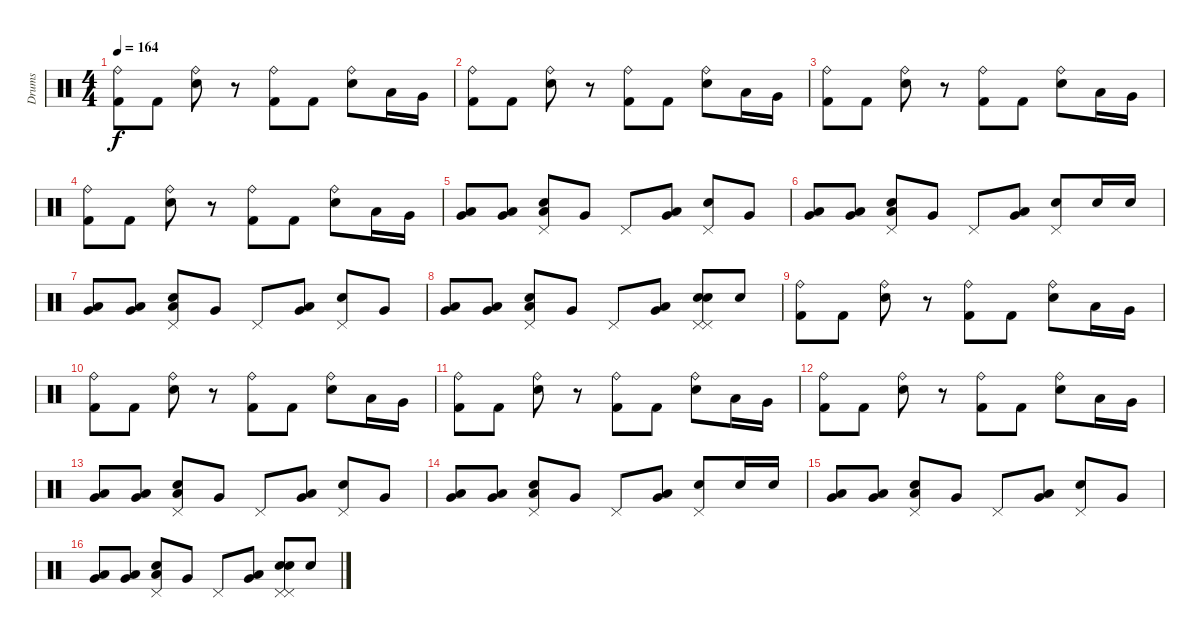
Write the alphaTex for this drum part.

\track ("Drums" "Drums") {instrument percussion}
\staff {score}
\articulation defaults
\ts (4 4)
\tempo 164
\clef neutral
\ks c
("Ride (bell)" "Kick (hit) 2").8{dy f} "Kick (hit) 2".8 ("Ride (bell)" "Electric Snare (hit)").8 r.8 ("Ride (bell)" "Kick (hit) 2").8 "Kick (hit) 2".8 ("Ride (bell)" "Electric Snare (hit)").8 "Low Tom (hit)".16 "Very Low Tom (hit)".16 |
("Ride (bell)" "Kick (hit) 2").8 "Kick (hit) 2".8 ("Ride (bell)" "Electric Snare (hit)").8 r.8 ("Ride (bell)" "Kick (hit) 2").8 "Kick (hit) 2".8 ("Ride (bell)" "Electric Snare (hit)").8 "Low Tom (hit)".16 "Very Low Tom (hit)".16 |
("Ride (bell)" "Kick (hit) 2").8 "Kick (hit) 2".8 ("Ride (bell)" "Electric Snare (hit)").8 r.8 ("Ride (bell)" "Kick (hit) 2").8 "Kick (hit) 2".8 ("Ride (bell)" "Electric Snare (hit)").8 "Low Tom (hit)".16 "Very Low Tom (hit)".16 |
("Ride (bell)" "Kick (hit) 2").8 "Kick (hit) 2".8 ("Ride (bell)" "Electric Snare (hit)").8 r.8 ("Ride (bell)" "Kick (hit) 2").8 "Kick (hit) 2".8 ("Ride (bell)" "Electric Snare (hit)").8 "Low Tom (hit)".16 "Very Low Tom (hit)".16 |
("Very Low Tom (hit)" "Low Floor Tom (hit)").8 ("Very Low Tom (hit)" "Low Floor Tom (hit)").8 ("Electric Snare (hit)" "Pedal Hi-Hat (hit)" "Low Floor Tom (hit)").8 "Very Low Tom (hit)".8 "Pedal Hi-Hat (hit)".8 ("Very Low Tom (hit)" "Low Floor Tom (hit)").8 ("Electric Snare (hit)" "Pedal Hi-Hat (hit)").8 "Very Low Tom (hit)".8 |
("Very Low Tom (hit)" "Low Floor Tom (hit)").8 ("Very Low Tom (hit)" "Low Floor Tom (hit)").8 ("Electric Snare (hit)" "Pedal Hi-Hat (hit)" "Low Floor Tom (hit)").8 "Very Low Tom (hit)".8 "Pedal Hi-Hat (hit)".8 ("Very Low Tom (hit)" "Low Floor Tom (hit)").8 ("Electric Snare (hit)" "Pedal Hi-Hat (hit)").8 "Electric Snare (hit)".16 "Electric Snare (hit)".16 |
("Very Low Tom (hit)" "Low Floor Tom (hit)").8 ("Very Low Tom (hit)" "Low Floor Tom (hit)").8 ("Electric Snare (hit)" "Pedal Hi-Hat (hit)" "Low Floor Tom (hit)").8 "Very Low Tom (hit)".8 "Pedal Hi-Hat (hit)".8 ("Very Low Tom (hit)" "Low Floor Tom (hit)").8 ("Electric Snare (hit)" "Pedal Hi-Hat (hit)").8 "Very Low Tom (hit)".8 |
("Very Low Tom (hit)" "Low Floor Tom (hit)").8 ("Very Low Tom (hit)" "Low Floor Tom (hit)").8 ("Electric Snare (hit)" "Pedal Hi-Hat (hit)" "Low Floor Tom (hit)").8 "Very Low Tom (hit)".8 "Pedal Hi-Hat (hit)".8 ("Very Low Tom (hit)" "Low Floor Tom (hit)").8 ("Electric Snare (hit)" "Pedal Hi-Hat (hit)" "Electric Snare (hit)" "Pedal Hi-Hat (hit)").8 "Electric Snare (hit)".8 |
("Ride (bell)" "Kick (hit) 2").8 "Kick (hit) 2".8 ("Ride (bell)" "Electric Snare (hit)").8 r.8 ("Ride (bell)" "Kick (hit) 2").8 "Kick (hit) 2".8 ("Ride (bell)" "Electric Snare (hit)").8 "Low Tom (hit)".16 "Very Low Tom (hit)".16 |
("Ride (bell)" "Kick (hit) 2").8 "Kick (hit) 2".8 ("Ride (bell)" "Electric Snare (hit)").8 r.8 ("Ride (bell)" "Kick (hit) 2").8 "Kick (hit) 2".8 ("Ride (bell)" "Electric Snare (hit)").8 "Low Tom (hit)".16 "Very Low Tom (hit)".16 |
("Ride (bell)" "Kick (hit) 2").8 "Kick (hit) 2".8 ("Ride (bell)" "Electric Snare (hit)").8 r.8 ("Ride (bell)" "Kick (hit) 2").8 "Kick (hit) 2".8 ("Ride (bell)" "Electric Snare (hit)").8 "Low Tom (hit)".16 "Very Low Tom (hit)".16 |
("Ride (bell)" "Kick (hit) 2").8 "Kick (hit) 2".8 ("Ride (bell)" "Electric Snare (hit)").8 r.8 ("Ride (bell)" "Kick (hit) 2").8 "Kick (hit) 2".8 ("Ride (bell)" "Electric Snare (hit)").8 "Low Tom (hit)".16 "Very Low Tom (hit)".16 |
("Very Low Tom (hit)" "Low Floor Tom (hit)").8 ("Very Low Tom (hit)" "Low Floor Tom (hit)").8 ("Electric Snare (hit)" "Pedal Hi-Hat (hit)" "Low Floor Tom (hit)").8 "Very Low Tom (hit)".8 "Pedal Hi-Hat (hit)".8 ("Very Low Tom (hit)" "Low Floor Tom (hit)").8 ("Electric Snare (hit)" "Pedal Hi-Hat (hit)").8 "Very Low Tom (hit)".8 |
("Very Low Tom (hit)" "Low Floor Tom (hit)").8 ("Very Low Tom (hit)" "Low Floor Tom (hit)").8 ("Electric Snare (hit)" "Pedal Hi-Hat (hit)" "Low Floor Tom (hit)").8 "Very Low Tom (hit)".8 "Pedal Hi-Hat (hit)".8 ("Very Low Tom (hit)" "Low Floor Tom (hit)").8 ("Electric Snare (hit)" "Pedal Hi-Hat (hit)").8 "Electric Snare (hit)".16 "Electric Snare (hit)".16 |
("Very Low Tom (hit)" "Low Floor Tom (hit)").8 ("Very Low Tom (hit)" "Low Floor Tom (hit)").8 ("Electric Snare (hit)" "Pedal Hi-Hat (hit)" "Low Floor Tom (hit)").8 "Very Low Tom (hit)".8 "Pedal Hi-Hat (hit)".8 ("Very Low Tom (hit)" "Low Floor Tom (hit)").8 ("Electric Snare (hit)" "Pedal Hi-Hat (hit)").8 "Very Low Tom (hit)".8 |
("Very Low Tom (hit)" "Low Floor Tom (hit)").8 ("Very Low Tom (hit)" "Low Floor Tom (hit)").8 ("Electric Snare (hit)" "Pedal Hi-Hat (hit)" "Low Floor Tom (hit)").8 "Very Low Tom (hit)".8 "Pedal Hi-Hat (hit)".8 ("Very Low Tom (hit)" "Low Floor Tom (hit)").8 ("Electric Snare (hit)" "Pedal Hi-Hat (hit)" "Electric Snare (hit)" "Pedal Hi-Hat (hit)").8 "Electric Snare (hit)".8
